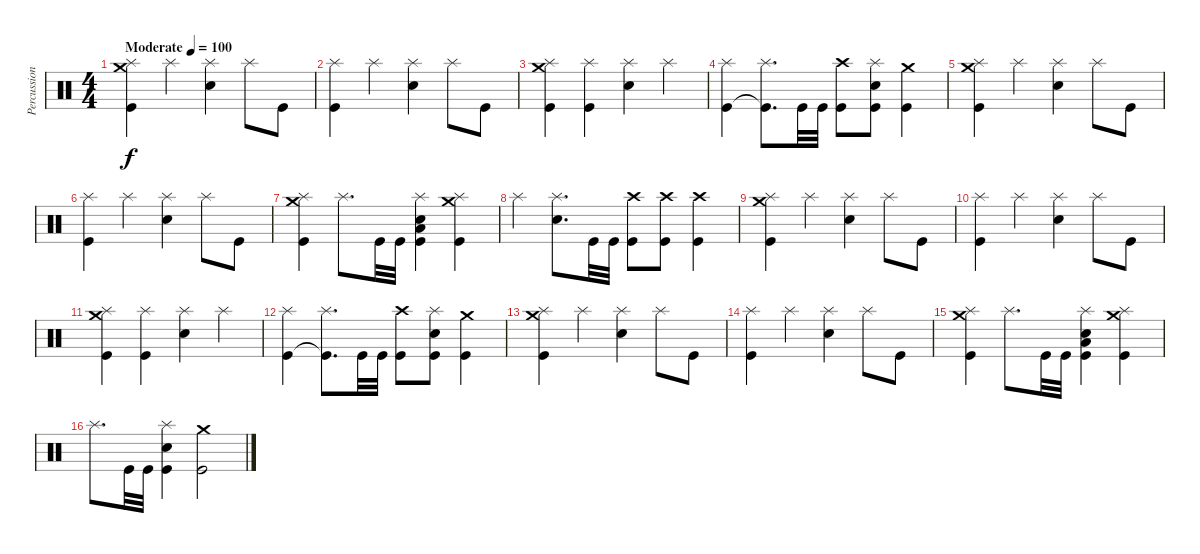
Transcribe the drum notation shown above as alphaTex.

\track ("Percussion" "Percussion") {instrument percussion}
\staff {score}
\articulation defaults
\ts (4 4)
\tempo (100 "Moderate")
\clef neutral
\ks c
("Crash medium (hit)" "Splash (hit)" "Kick (hit)").4{dy f} "Splash (hit)".4 ("Splash (hit)" "Electric Snare (hit)").4 "Splash (hit)".8 "Kick (hit)".8 |
("Splash (hit)" "Kick (hit)").4 "Splash (hit)".4 ("Splash (hit)" "Electric Snare (hit)").4 "Splash (hit)".8 "Kick (hit)".8 |
("Crash medium (hit)" "Splash (hit)" "Kick (hit)").4 ("Splash (hit)" "Kick (hit)").4 ("Splash (hit)" "Electric Snare (hit)").4 "Splash (hit)".4 |
("Splash (hit)" "Kick (hit)").4 ("Splash (hit)" "Kick (hit)"{t}).8{d} "Kick (hit)".32 "Kick (hit)".32 ("Crash high (hit)" "Kick (hit)").8 ("Splash (hit)" "Electric Snare (hit)" "Kick (hit)").8 ("Crash medium (hit)" "Kick (hit)").4 |
("Crash medium (hit)" "Splash (hit)" "Kick (hit)").4 "Splash (hit)".4 ("Splash (hit)" "Electric Snare (hit)").4 "Splash (hit)".8 "Kick (hit)".8 |
("Splash (hit)" "Kick (hit)").4 "Splash (hit)".4 ("Splash (hit)" "Electric Snare (hit)").4 "Splash (hit)".8 "Kick (hit)".8 |
("Crash medium (hit)" "Splash (hit)" "Kick (hit)").4 "Splash (hit)".8{d} "Kick (hit)".32 "Kick (hit)".32 ("Splash (hit)" "Low Tom (hit)" "Electric Snare (hit)" "Kick (hit)").4 ("Crash medium (hit)" "Splash (hit)" "Kick (hit)").4 |
"Splash (hit)".4 ("Splash (hit)" "Electric Snare (hit)").8{d} "Kick (hit)".32 "Kick (hit)".32 ("Crash high (hit)" "Kick (hit)").8 ("Crash high (hit)" "Kick (hit)").8 ("Crash high (hit)" "Kick (hit)").4 |
("Crash medium (hit)" "Splash (hit)" "Kick (hit)").4 "Splash (hit)".4 ("Splash (hit)" "Electric Snare (hit)").4 "Splash (hit)".8 "Kick (hit)".8 |
("Splash (hit)" "Kick (hit)").4 "Splash (hit)".4 ("Splash (hit)" "Electric Snare (hit)").4 "Splash (hit)".8 "Kick (hit)".8 |
("Crash medium (hit)" "Splash (hit)" "Kick (hit)").4 ("Splash (hit)" "Kick (hit)").4 ("Splash (hit)" "Electric Snare (hit)").4 "Splash (hit)".4 |
("Splash (hit)" "Kick (hit)").4 ("Splash (hit)" "Kick (hit)"{t}).8{d} "Kick (hit)".32 "Kick (hit)".32 ("Crash high (hit)" "Kick (hit)").8 ("Splash (hit)" "Electric Snare (hit)" "Kick (hit)").8 ("Crash medium (hit)" "Kick (hit)").4 |
("Crash medium (hit)" "Splash (hit)" "Kick (hit)").4 "Splash (hit)".4 ("Splash (hit)" "Electric Snare (hit)").4 "Splash (hit)".8 "Kick (hit)".8 |
("Splash (hit)" "Kick (hit)").4 "Splash (hit)".4 ("Splash (hit)" "Electric Snare (hit)").4 "Splash (hit)".8 "Kick (hit)".8 |
("Crash medium (hit)" "Splash (hit)" "Kick (hit)").4 "Splash (hit)".8{d} "Kick (hit)".32 "Kick (hit)".32 ("Splash (hit)" "Low Tom (hit)" "Electric Snare (hit)" "Kick (hit)").4 ("Crash medium (hit)" "Splash (hit)" "Kick (hit)").4 |
"Splash (hit)".8{d} "Kick (hit)".32 "Kick (hit)".32 ("Splash (hit)" "Electric Snare (hit)" "Kick (hit)").4 ("Crash medium (hit)" "Kick (hit)").2
